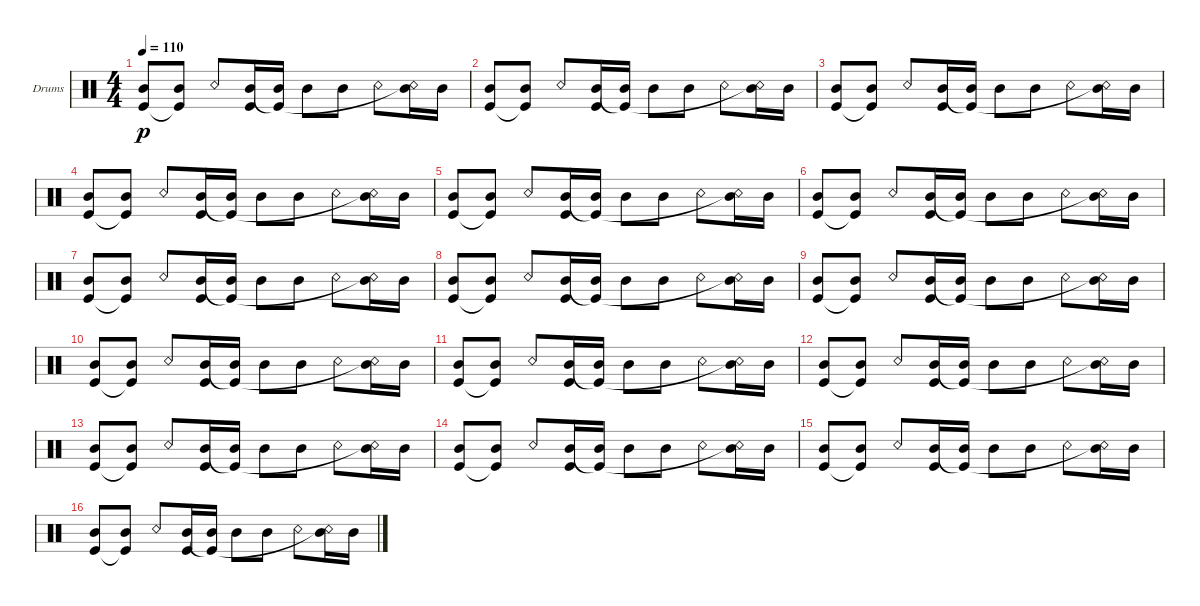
\defaultSystemsLayout 4
\bracketExtendMode groupsimilarinstruments
\firstSystemTrackNameOrientation horizontal
\otherSystemsTrackNameOrientation horizontal
\track ("Drumkit" "Drums") {instrument percussion}
\staff {score}
\articulation defaults
\ts (4 4)
\tempo 110
\clef neutral
\scale
0.333333
\ks c
("Mid Tom (hit)" "Kick (hit)").8{dy p} ("Mid Tom (hit)" "Kick (hit)"{t}).8 "Snare (rim shot)".8 ("Kick (hit)" "Mid Tom (hit)").16 ("Mid Tom (hit)" "Kick (hit)"{t}).16 "Mid Tom (hit)".8 "Mid Tom (hit)".8 "Snare (rim shot)".8 ("Mid Tom (hit)" "Snare (rim shot)"{t}).16 "Mid Tom (hit)".16 |
\scale
0.333333 ("Mid Tom (hit)" "Kick (hit)").8 ("Mid Tom (hit)" "Kick (hit)"{t}).8 "Snare (rim shot)".8 ("Kick (hit)" "Mid Tom (hit)").16 ("Mid Tom (hit)" "Kick (hit)"{t}).16 "Mid Tom (hit)".8 "Mid Tom (hit)".8 "Snare (rim shot)".8 ("Mid Tom (hit)" "Snare (rim shot)"{t}).16 "Mid Tom (hit)".16 |
\scale
0.333333 ("Mid Tom (hit)" "Kick (hit)").8 ("Mid Tom (hit)" "Kick (hit)"{t}).8 "Snare (rim shot)".8 ("Kick (hit)" "Mid Tom (hit)").16 ("Mid Tom (hit)" "Kick (hit)"{t}).16 "Mid Tom (hit)".8 "Mid Tom (hit)".8 "Snare (rim shot)".8 ("Mid Tom (hit)" "Snare (rim shot)"{t}).16 "Mid Tom (hit)".16 |
\scale
0.333333 ("Mid Tom (hit)" "Kick (hit)").8 ("Mid Tom (hit)" "Kick (hit)"{t}).8 "Snare (rim shot)".8 ("Kick (hit)" "Mid Tom (hit)").16 ("Mid Tom (hit)" "Kick (hit)"{t}).16 "Mid Tom (hit)".8 "Mid Tom (hit)".8 "Snare (rim shot)".8 ("Mid Tom (hit)" "Snare (rim shot)"{t}).16 "Mid Tom (hit)".16 |
\scale
0.333333 ("Mid Tom (hit)" "Kick (hit)").8 ("Mid Tom (hit)" "Kick (hit)"{t}).8 "Snare (rim shot)".8 ("Kick (hit)" "Mid Tom (hit)").16 ("Mid Tom (hit)" "Kick (hit)"{t}).16 "Mid Tom (hit)".8 "Mid Tom (hit)".8 "Snare (rim shot)".8 ("Mid Tom (hit)" "Snare (rim shot)"{t}).16 "Mid Tom (hit)".16 |
\scale
0.333333 ("Mid Tom (hit)" "Kick (hit)").8 ("Mid Tom (hit)" "Kick (hit)"{t}).8 "Snare (rim shot)".8 ("Kick (hit)" "Mid Tom (hit)").16 ("Mid Tom (hit)" "Kick (hit)"{t}).16 "Mid Tom (hit)".8 "Mid Tom (hit)".8 "Snare (rim shot)".8 ("Mid Tom (hit)" "Snare (rim shot)"{t}).16 "Mid Tom (hit)".16 |
\scale
0.333333 ("Mid Tom (hit)" "Kick (hit)").8 ("Mid Tom (hit)" "Kick (hit)"{t}).8 "Snare (rim shot)".8 ("Kick (hit)" "Mid Tom (hit)").16 ("Mid Tom (hit)" "Kick (hit)"{t}).16 "Mid Tom (hit)".8 "Mid Tom (hit)".8 "Snare (rim shot)".8 ("Mid Tom (hit)" "Snare (rim shot)"{t}).16 "Mid Tom (hit)".16 |
\scale
0.333333 ("Mid Tom (hit)" "Kick (hit)").8 ("Mid Tom (hit)" "Kick (hit)"{t}).8 "Snare (rim shot)".8 ("Kick (hit)" "Mid Tom (hit)").16 ("Mid Tom (hit)" "Kick (hit)"{t}).16 "Mid Tom (hit)".8 "Mid Tom (hit)".8 "Snare (rim shot)".8 ("Mid Tom (hit)" "Snare (rim shot)"{t}).16 "Mid Tom (hit)".16 |
\scale
0.333333 ("Mid Tom (hit)" "Kick (hit)").8 ("Mid Tom (hit)" "Kick (hit)"{t}).8 "Snare (rim shot)".8 ("Kick (hit)" "Mid Tom (hit)").16 ("Mid Tom (hit)" "Kick (hit)"{t}).16 "Mid Tom (hit)".8 "Mid Tom (hit)".8 "Snare (rim shot)".8 ("Mid Tom (hit)" "Snare (rim shot)"{t}).16 "Mid Tom (hit)".16 |
\scale
0.333333 ("Mid Tom (hit)" "Kick (hit)").8 ("Mid Tom (hit)" "Kick (hit)"{t}).8 "Snare (rim shot)".8 ("Kick (hit)" "Mid Tom (hit)").16 ("Mid Tom (hit)" "Kick (hit)"{t}).16 "Mid Tom (hit)".8 "Mid Tom (hit)".8 "Snare (rim shot)".8 ("Mid Tom (hit)" "Snare (rim shot)"{t}).16 "Mid Tom (hit)".16 |
\scale
0.333333 ("Mid Tom (hit)" "Kick (hit)").8 ("Mid Tom (hit)" "Kick (hit)"{t}).8 "Snare (rim shot)".8 ("Kick (hit)" "Mid Tom (hit)").16 ("Mid Tom (hit)" "Kick (hit)"{t}).16 "Mid Tom (hit)".8 "Mid Tom (hit)".8 "Snare (rim shot)".8 ("Mid Tom (hit)" "Snare (rim shot)"{t}).16 "Mid Tom (hit)".16 |
\scale
0.333333 ("Mid Tom (hit)" "Kick (hit)").8 ("Mid Tom (hit)" "Kick (hit)"{t}).8 "Snare (rim shot)".8 ("Kick (hit)" "Mid Tom (hit)").16 ("Mid Tom (hit)" "Kick (hit)"{t}).16 "Mid Tom (hit)".8 "Mid Tom (hit)".8 "Snare (rim shot)".8 ("Mid Tom (hit)" "Snare (rim shot)"{t}).16 "Mid Tom (hit)".16 |
\scale
0.333333 ("Mid Tom (hit)" "Kick (hit)").8 ("Mid Tom (hit)" "Kick (hit)"{t}).8 "Snare (rim shot)".8 ("Kick (hit)" "Mid Tom (hit)").16 ("Mid Tom (hit)" "Kick (hit)"{t}).16 "Mid Tom (hit)".8 "Mid Tom (hit)".8 "Snare (rim shot)".8 ("Mid Tom (hit)" "Snare (rim shot)"{t}).16 "Mid Tom (hit)".16 |
\scale
0.333333 ("Mid Tom (hit)" "Kick (hit)").8 ("Mid Tom (hit)" "Kick (hit)"{t}).8 "Snare (rim shot)".8 ("Kick (hit)" "Mid Tom (hit)").16 ("Mid Tom (hit)" "Kick (hit)"{t}).16 "Mid Tom (hit)".8 "Mid Tom (hit)".8 "Snare (rim shot)".8 ("Mid Tom (hit)" "Snare (rim shot)"{t}).16 "Mid Tom (hit)".16 |
\scale
0.333333 ("Mid Tom (hit)" "Kick (hit)").8 ("Mid Tom (hit)" "Kick (hit)"{t}).8 "Snare (rim shot)".8 ("Kick (hit)" "Mid Tom (hit)").16 ("Mid Tom (hit)" "Kick (hit)"{t}).16 "Mid Tom (hit)".8 "Mid Tom (hit)".8 "Snare (rim shot)".8 ("Mid Tom (hit)" "Snare (rim shot)"{t}).16 "Mid Tom (hit)".16 |
\scale
0.333333 ("Mid Tom (hit)" "Kick (hit)").8 ("Mid Tom (hit)" "Kick (hit)"{t}).8 "Snare (rim shot)".8 ("Kick (hit)" "Mid Tom (hit)").16 ("Mid Tom (hit)" "Kick (hit)"{t}).16 "Mid Tom (hit)".8 "Mid Tom (hit)".8 "Snare (rim shot)".8 ("Mid Tom (hit)" "Snare (rim shot)"{t}).16 "Mid Tom (hit)".16
